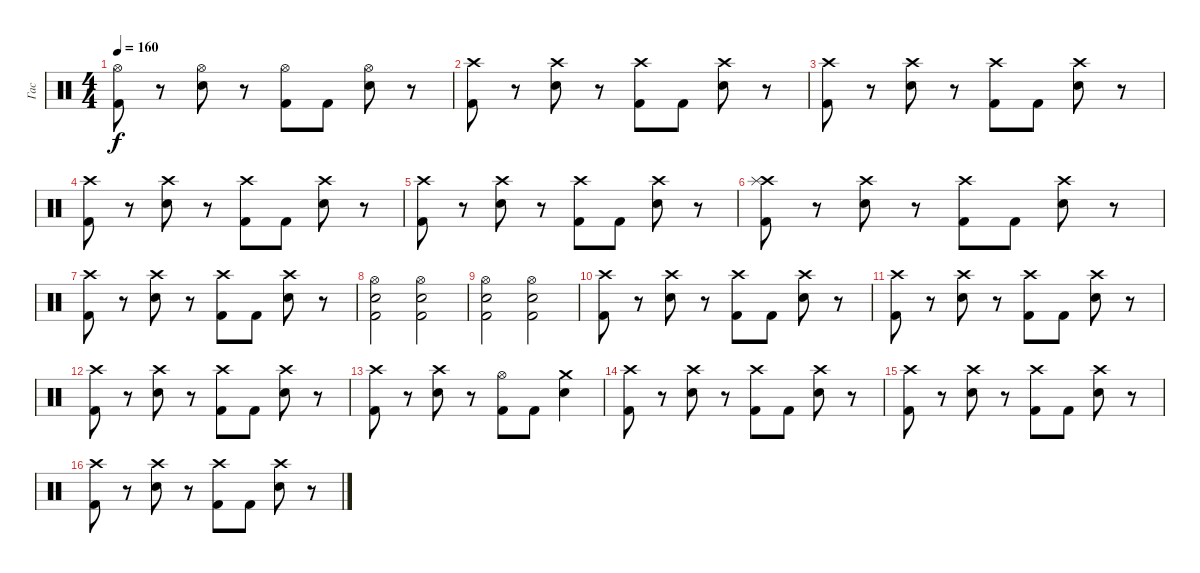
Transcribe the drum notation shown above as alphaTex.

\track ("Гас" "Гас") {instrument percussion}
\staff {score}
\articulation defaults
\ts (4 4)
\tempo 160
\clef neutral
\ks c
("Hi-Hat (open)" "Kick (hit) 2").8{dy f} r.8 ("Hi-Hat (open)" "Electric Snare (hit)").8 r.8 ("Hi-Hat (open)" "Kick (hit) 2").8 "Kick (hit) 2".8 ("Hi-Hat (open)" "Electric Snare (hit)").8 r.8 |
("Crash high (hit)" "Kick (hit) 2").8 r.8 ("Crash high (hit)" "Electric Snare (hit)").8 r.8 ("Crash high (hit)" "Kick (hit) 2").8 "Kick (hit) 2".8 ("Crash high (hit)" "Electric Snare (hit)").8 r.8 |
("Crash high (hit)" "Kick (hit) 2").8 r.8 ("Crash high (hit)" "Electric Snare (hit)").8 r.8 ("Crash high (hit)" "Kick (hit) 2").8 "Kick (hit) 2".8 ("Crash high (hit)" "Electric Snare (hit)").8 r.8 |
("Crash high (hit)" "Kick (hit) 2").8 r.8 ("Crash high (hit)" "Electric Snare (hit)").8 r.8 ("Crash high (hit)" "Kick (hit) 2").8 "Kick (hit) 2".8 ("Crash high (hit)" "Electric Snare (hit)").8 r.8 |
("Crash high (hit)" "Kick (hit) 2").8 r.8 ("Crash high (hit)" "Electric Snare (hit)").8 r.8 ("Crash high (hit)" "Kick (hit) 2").8 "Kick (hit) 2".8 ("Crash high (hit)" "Electric Snare (hit)").8 r.8 |
("Crash high (hit)" "Splash (hit)" "Kick (hit) 2").8 r.8 ("Crash high (hit)" "Electric Snare (hit)").8 r.8 ("Crash high (hit)" "Kick (hit) 2").8 "Kick (hit) 2".8 ("Crash high (hit)" "Electric Snare (hit)").8 r.8 |
("Crash high (hit)" "Kick (hit) 2").8 r.8 ("Crash high (hit)" "Electric Snare (hit)").8 r.8 ("Crash high (hit)" "Kick (hit) 2").8 "Kick (hit) 2".8 ("Crash high (hit)" "Electric Snare (hit)").8 r.8 |
("Hi-Hat (open)" "Electric Snare (hit)" "Kick (hit) 2").2 ("Hi-Hat (open)" "Electric Snare (hit)" "Kick (hit) 2").2 |
("Hi-Hat (open)" "Electric Snare (hit)" "Kick (hit) 2").2 ("Hi-Hat (open)" "Electric Snare (hit)" "Kick (hit) 2").2 |
("Crash high (hit)" "Kick (hit) 2").8 r.8 ("Crash high (hit)" "Electric Snare (hit)").8 r.8 ("Crash high (hit)" "Kick (hit) 2").8 "Kick (hit) 2".8 ("Crash high (hit)" "Electric Snare (hit)").8 r.8 |
("Crash high (hit)" "Kick (hit) 2").8 r.8 ("Crash high (hit)" "Electric Snare (hit)").8 r.8 ("Crash high (hit)" "Kick (hit) 2").8 "Kick (hit) 2".8 ("Crash high (hit)" "Electric Snare (hit)").8 r.8 |
("Crash high (hit)" "Kick (hit) 2").8 r.8 ("Crash high (hit)" "Electric Snare (hit)").8 r.8 ("Crash high (hit)" "Kick (hit) 2").8 "Kick (hit) 2".8 ("Crash high (hit)" "Electric Snare (hit)").8 r.8 |
("Crash high (hit)" "Kick (hit) 2").8 r.8 ("Crash high (hit)" "Electric Snare (hit)").8 r.8 ("Hi-Hat (open)" "Kick (hit) 2").8 "Kick (hit) 2".8 ("Crash medium (hit)" "Electric Snare (hit)").4 |
("Crash high (hit)" "Kick (hit) 2").8 r.8 ("Crash high (hit)" "Electric Snare (hit)").8 r.8 ("Crash high (hit)" "Kick (hit) 2").8 "Kick (hit) 2".8 ("Crash high (hit)" "Electric Snare (hit)").8 r.8 |
("Crash high (hit)" "Kick (hit) 2").8 r.8 ("Crash high (hit)" "Electric Snare (hit)").8 r.8 ("Crash high (hit)" "Kick (hit) 2").8 "Kick (hit) 2".8 ("Crash high (hit)" "Electric Snare (hit)").8 r.8 |
("Crash high (hit)" "Kick (hit) 2").8 r.8 ("Crash high (hit)" "Electric Snare (hit)").8 r.8 ("Crash high (hit)" "Kick (hit) 2").8 "Kick (hit) 2".8 ("Crash high (hit)" "Electric Snare (hit)").8 r.8
